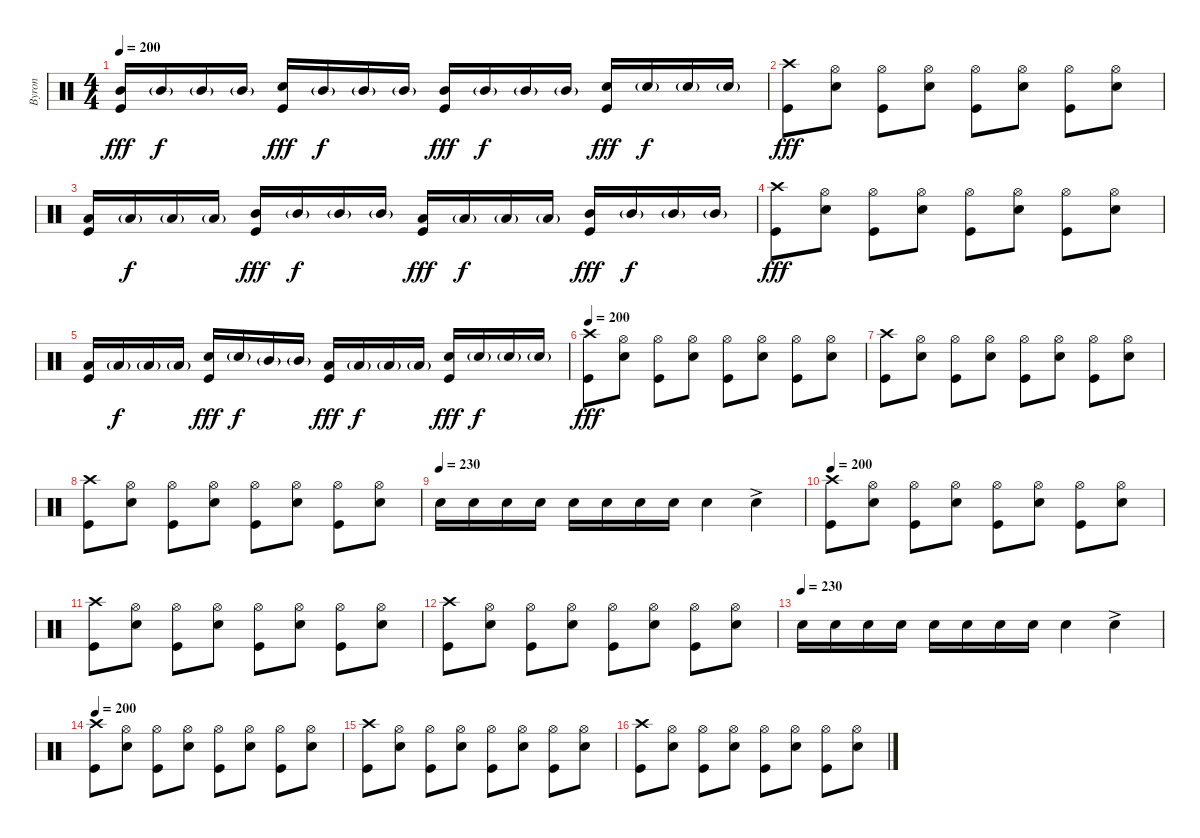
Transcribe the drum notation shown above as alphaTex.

\track ("Byron" "Byron") {instrument percussion}
\staff {score}
\articulation defaults
\ts (4 4)
\tempo 200
\clef neutral
\ks c
("Mid Tom (hit)" "Kick (hit)").16{dy fff} "Mid Tom (hit)"{g}.16{dy f} "Mid Tom (hit)"{g}.16 "Mid Tom (hit)"{g}.16 ("Electric Snare (hit)" "Kick (hit)").16{dy fff} "Mid Tom (hit)"{g}.16{dy f} "Mid Tom (hit)"{g}.16 "Mid Tom (hit)"{g}.16 ("Mid Tom (hit)" "Kick (hit)").16{dy fff} "Mid Tom (hit)"{g}.16{dy f} "Mid Tom (hit)"{g}.16 "Mid Tom (hit)"{g}.16 ("Electric Snare (hit)" "Kick (hit)").16{dy fff} "Electric Snare (hit)"{g}.16{dy f} "Electric Snare (hit)"{g}.16 "Electric Snare (hit)"{g}.16 |
("Crash high (hit)" "Kick (hit)").8{dy fff} ("Electric Snare (hit)" "Hi-Hat (open)").8 ("Kick (hit)" "Hi-Hat (open)").8 ("Electric Snare (hit)" "Hi-Hat (open)").8 ("Kick (hit)" "Hi-Hat (open)").8 ("Electric Snare (hit)" "Hi-Hat (open)").8 ("Kick (hit)" "Hi-Hat (open)").8 ("Electric Snare (hit)" "Hi-Hat (open)").8 |
("Low Tom (hit)" "Kick (hit)").16 "Low Tom (hit)"{g}.16{dy f} "Low Tom (hit)"{g}.16 "Low Tom (hit)"{g}.16 ("Mid Tom (hit)" "Kick (hit)").16{dy fff} "Mid Tom (hit)"{g}.16{dy f} "Mid Tom (hit)"{g}.16 "Mid Tom (hit)"{g}.16 ("Low Tom (hit)" "Kick (hit)").16{dy fff} "Low Tom (hit)"{g}.16{dy f} "Low Tom (hit)"{g}.16 "Low Tom (hit)"{g}.16 ("Mid Tom (hit)" "Kick (hit)").16{dy fff} "Mid Tom (hit)"{g}.16{dy f} "Mid Tom (hit)"{g}.16 "Mid Tom (hit)"{g}.16 |
("Crash high (hit)" "Kick (hit)").8{dy fff} ("Electric Snare (hit)" "Hi-Hat (open)").8 ("Kick (hit)" "Hi-Hat (open)").8 ("Electric Snare (hit)" "Hi-Hat (open)").8 ("Kick (hit)" "Hi-Hat (open)").8 ("Electric Snare (hit)" "Hi-Hat (open)").8 ("Kick (hit)" "Hi-Hat (open)").8 ("Electric Snare (hit)" "Hi-Hat (open)").8 |
("Low Tom (hit)" "Kick (hit)").16 "Low Tom (hit)"{g}.16{dy f} "Low Tom (hit)"{g}.16 "Low Tom (hit)"{g}.16 ("Electric Snare (hit)" "Kick (hit)").16{dy fff} "Electric Snare (hit)"{g}.16{dy f} "Mid Tom (hit)"{g}.16 "Mid Tom (hit)"{g}.16 ("Low Tom (hit)" "Kick (hit)").16{dy fff} "Low Tom (hit)"{g}.16{dy f} "Low Tom (hit)"{g}.16 "Low Tom (hit)"{g}.16 ("Electric Snare (hit)" "Kick (hit)").16{dy fff} "Electric Snare (hit)"{g}.16{dy f} "Electric Snare (hit)"{g}.16 "Electric Snare (hit)"{g}.16 |
\tempo 200
("Crash high (hit)" "Kick (hit)").8{dy fff} ("Electric Snare (hit)" "Hi-Hat (open)").8 ("Kick (hit)" "Hi-Hat (open)").8 ("Electric Snare (hit)" "Hi-Hat (open)").8 ("Kick (hit)" "Hi-Hat (open)").8 ("Electric Snare (hit)" "Hi-Hat (open)").8 ("Kick (hit)" "Hi-Hat (open)").8 ("Electric Snare (hit)" "Hi-Hat (open)").8 |
("Crash high (hit)" "Kick (hit)").8 ("Electric Snare (hit)" "Hi-Hat (open)").8 ("Kick (hit)" "Hi-Hat (open)").8 ("Electric Snare (hit)" "Hi-Hat (open)").8 ("Kick (hit)" "Hi-Hat (open)").8 ("Electric Snare (hit)" "Hi-Hat (open)").8 ("Kick (hit)" "Hi-Hat (open)").8 ("Electric Snare (hit)" "Hi-Hat (open)").8 |
("Crash high (hit)" "Kick (hit)").8 ("Electric Snare (hit)" "Hi-Hat (open)").8 ("Kick (hit)" "Hi-Hat (open)").8 ("Electric Snare (hit)" "Hi-Hat (open)").8 ("Kick (hit)" "Hi-Hat (open)").8 ("Electric Snare (hit)" "Hi-Hat (open)").8 ("Kick (hit)" "Hi-Hat (open)").8 ("Electric Snare (hit)" "Hi-Hat (open)").8 |
\tempo (230)
"Electric Snare (hit)".16 "Electric Snare (hit)".16 "Electric Snare (hit)".16 "Electric Snare (hit)".16 "Electric Snare (hit)".16 "Electric Snare (hit)".16 "Electric Snare (hit)".16 "Electric Snare (hit)".16 "Electric Snare (hit)".4 "Electric Snare (hit)"{ac}.4 |
\tempo 200
("Crash high (hit)" "Kick (hit)").8 ("Electric Snare (hit)" "Hi-Hat (open)").8 ("Kick (hit)" "Hi-Hat (open)").8 ("Electric Snare (hit)" "Hi-Hat (open)").8 ("Kick (hit)" "Hi-Hat (open)").8 ("Electric Snare (hit)" "Hi-Hat (open)").8 ("Kick (hit)" "Hi-Hat (open)").8 ("Electric Snare (hit)" "Hi-Hat (open)").8 |
("Crash high (hit)" "Kick (hit)").8 ("Electric Snare (hit)" "Hi-Hat (open)").8 ("Kick (hit)" "Hi-Hat (open)").8 ("Electric Snare (hit)" "Hi-Hat (open)").8 ("Kick (hit)" "Hi-Hat (open)").8 ("Electric Snare (hit)" "Hi-Hat (open)").8 ("Kick (hit)" "Hi-Hat (open)").8 ("Electric Snare (hit)" "Hi-Hat (open)").8 |
("Crash high (hit)" "Kick (hit)").8 ("Electric Snare (hit)" "Hi-Hat (open)").8 ("Kick (hit)" "Hi-Hat (open)").8 ("Electric Snare (hit)" "Hi-Hat (open)").8 ("Kick (hit)" "Hi-Hat (open)").8 ("Electric Snare (hit)" "Hi-Hat (open)").8 ("Kick (hit)" "Hi-Hat (open)").8 ("Electric Snare (hit)" "Hi-Hat (open)").8 |
\tempo (230)
"Electric Snare (hit)".16 "Electric Snare (hit)".16 "Electric Snare (hit)".16 "Electric Snare (hit)".16 "Electric Snare (hit)".16 "Electric Snare (hit)".16 "Electric Snare (hit)".16 "Electric Snare (hit)".16 "Electric Snare (hit)".4 "Electric Snare (hit)"{ac}.4 |
\tempo 200
("Crash high (hit)" "Kick (hit)").8 ("Electric Snare (hit)" "Hi-Hat (open)").8 ("Kick (hit)" "Hi-Hat (open)").8 ("Electric Snare (hit)" "Hi-Hat (open)").8 ("Kick (hit)" "Hi-Hat (open)").8 ("Electric Snare (hit)" "Hi-Hat (open)").8 ("Kick (hit)" "Hi-Hat (open)").8 ("Electric Snare (hit)" "Hi-Hat (open)").8 |
("Crash high (hit)" "Kick (hit)").8 ("Electric Snare (hit)" "Hi-Hat (open)").8 ("Kick (hit)" "Hi-Hat (open)").8 ("Electric Snare (hit)" "Hi-Hat (open)").8 ("Kick (hit)" "Hi-Hat (open)").8 ("Electric Snare (hit)" "Hi-Hat (open)").8 ("Kick (hit)" "Hi-Hat (open)").8 ("Electric Snare (hit)" "Hi-Hat (open)").8 |
("Crash high (hit)" "Kick (hit)").8 ("Electric Snare (hit)" "Hi-Hat (open)").8 ("Kick (hit)" "Hi-Hat (open)").8 ("Electric Snare (hit)" "Hi-Hat (open)").8 ("Kick (hit)" "Hi-Hat (open)").8 ("Electric Snare (hit)" "Hi-Hat (open)").8 ("Kick (hit)" "Hi-Hat (open)").8 ("Electric Snare (hit)" "Hi-Hat (open)").8
